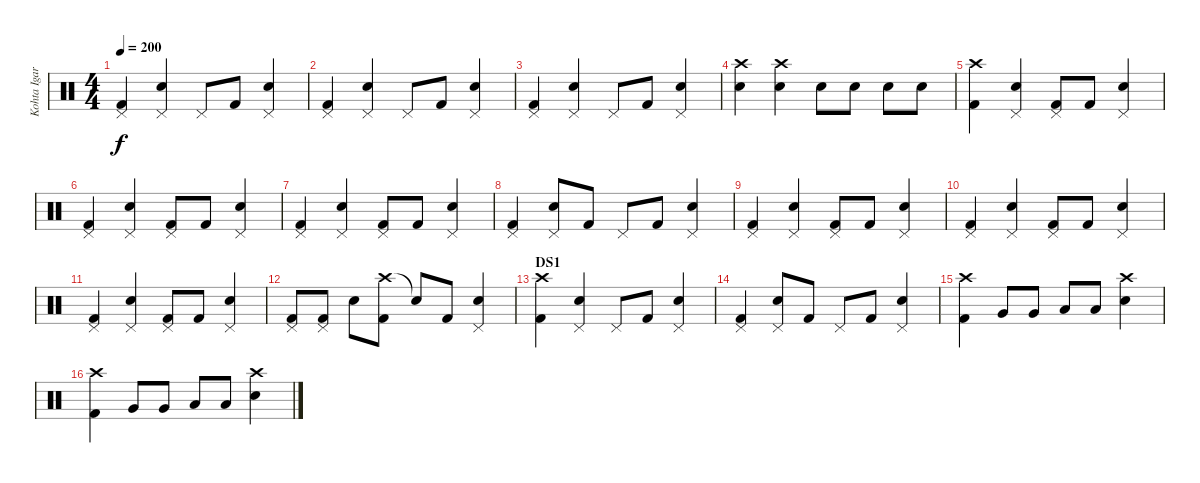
\track ("Kohta Igarashi" "Kohta Igar") {instrument percussion}
\staff {score}
\articulation defaults
\ts (4 4)
\tempo 200
\clef neutral
\ks c
("Pedal Hi-Hat (hit)" "Kick (hit) 2").4{dy f} ("Pedal Hi-Hat (hit)" "Electric Snare (hit)").4 "Pedal Hi-Hat (hit)".8 "Kick (hit) 2".8 ("Pedal Hi-Hat (hit)" "Electric Snare (hit)").4 |
("Pedal Hi-Hat (hit)" "Kick (hit) 2").4 ("Pedal Hi-Hat (hit)" "Electric Snare (hit)").4 "Pedal Hi-Hat (hit)".8 "Kick (hit) 2".8 ("Pedal Hi-Hat (hit)" "Electric Snare (hit)").4 |
("Pedal Hi-Hat (hit)" "Kick (hit) 2").4 ("Pedal Hi-Hat (hit)" "Electric Snare (hit)").4 "Pedal Hi-Hat (hit)".8 "Kick (hit) 2".8 ("Pedal Hi-Hat (hit)" "Electric Snare (hit)").4 |
("Crash high (hit)" "Electric Snare (hit)").4 ("Crash high (hit)" "Electric Snare (hit)").4 "Electric Snare (hit)".8 "Electric Snare (hit)".8 "Electric Snare (hit)".8 "Electric Snare (hit)".8 |
("Crash high (hit)" "Kick (hit) 2").4 ("Pedal Hi-Hat (hit)" "Electric Snare (hit)").4 ("Pedal Hi-Hat (hit)" "Kick (hit) 2").8 "Kick (hit) 2".8 ("Pedal Hi-Hat (hit)" "Electric Snare (hit)").4 |
("Pedal Hi-Hat (hit)" "Kick (hit) 2").4 ("Pedal Hi-Hat (hit)" "Electric Snare (hit)").4 ("Pedal Hi-Hat (hit)" "Kick (hit) 2").8 "Kick (hit) 2".8 ("Pedal Hi-Hat (hit)" "Electric Snare (hit)").4 |
("Pedal Hi-Hat (hit)" "Kick (hit) 2").4 ("Pedal Hi-Hat (hit)" "Electric Snare (hit)").4 ("Pedal Hi-Hat (hit)" "Kick (hit) 2").8 "Kick (hit) 2".8 ("Pedal Hi-Hat (hit)" "Electric Snare (hit)").4 |
("Pedal Hi-Hat (hit)" "Kick (hit) 2").4 ("Pedal Hi-Hat (hit)" "Electric Snare (hit)").8 "Kick (hit) 2".8 "Pedal Hi-Hat (hit)".8 "Kick (hit) 2".8 ("Pedal Hi-Hat (hit)" "Electric Snare (hit)").4 |
("Pedal Hi-Hat (hit)" "Kick (hit) 2").4 ("Pedal Hi-Hat (hit)" "Electric Snare (hit)").4 ("Pedal Hi-Hat (hit)" "Kick (hit) 2").8 "Kick (hit) 2".8 ("Pedal Hi-Hat (hit)" "Electric Snare (hit)").4 |
("Pedal Hi-Hat (hit)" "Kick (hit) 2").4 ("Pedal Hi-Hat (hit)" "Electric Snare (hit)").4 ("Pedal Hi-Hat (hit)" "Kick (hit) 2").8 "Kick (hit) 2".8 ("Pedal Hi-Hat (hit)" "Electric Snare (hit)").4 |
("Pedal Hi-Hat (hit)" "Kick (hit) 2").4 ("Pedal Hi-Hat (hit)" "Electric Snare (hit)").4 ("Pedal Hi-Hat (hit)" "Kick (hit) 2").8 "Kick (hit) 2".8 ("Pedal Hi-Hat (hit)" "Electric Snare (hit)").4 |
("Pedal Hi-Hat (hit)" "Kick (hit) 2").8 ("Pedal Hi-Hat (hit)" "Kick (hit) 2").8 "Electric Snare (hit)".8 ("Crash high (hit)" "Kick (hit) 2").8 "Snare (hit)"{t}.8 "Kick (hit) 2".8 ("Pedal Hi-Hat (hit)" "Electric Snare (hit)").4 |
\section ("" "DS1")
("Crash high (hit)" "Kick (hit) 2").4 ("Pedal Hi-Hat (hit)" "Electric Snare (hit)").4 "Pedal Hi-Hat (hit)".8 "Kick (hit) 2".8 ("Pedal Hi-Hat (hit)" "Electric Snare (hit)").4 |
("Pedal Hi-Hat (hit)" "Kick (hit) 2").4 ("Pedal Hi-Hat (hit)" "Electric Snare (hit)").8 "Kick (hit) 2".8 "Pedal Hi-Hat (hit)".8 "Kick (hit) 2".8 ("Pedal Hi-Hat (hit)" "Electric Snare (hit)").4 |
("Crash high (hit)" "Kick (hit) 2").4 "Very Low Tom (hit)".8 "Very Low Tom (hit)".8 "Low Floor Tom (hit)".8 "Low Floor Tom (hit)".8 ("Crash high (hit)" "Electric Snare (hit)").4 |
("Crash high (hit)" "Kick (hit) 2").4 "Very Low Tom (hit)".8 "Very Low Tom (hit)".8 "Low Floor Tom (hit)".8 "Low Floor Tom (hit)".8 ("Crash high (hit)" "Electric Snare (hit)").4
